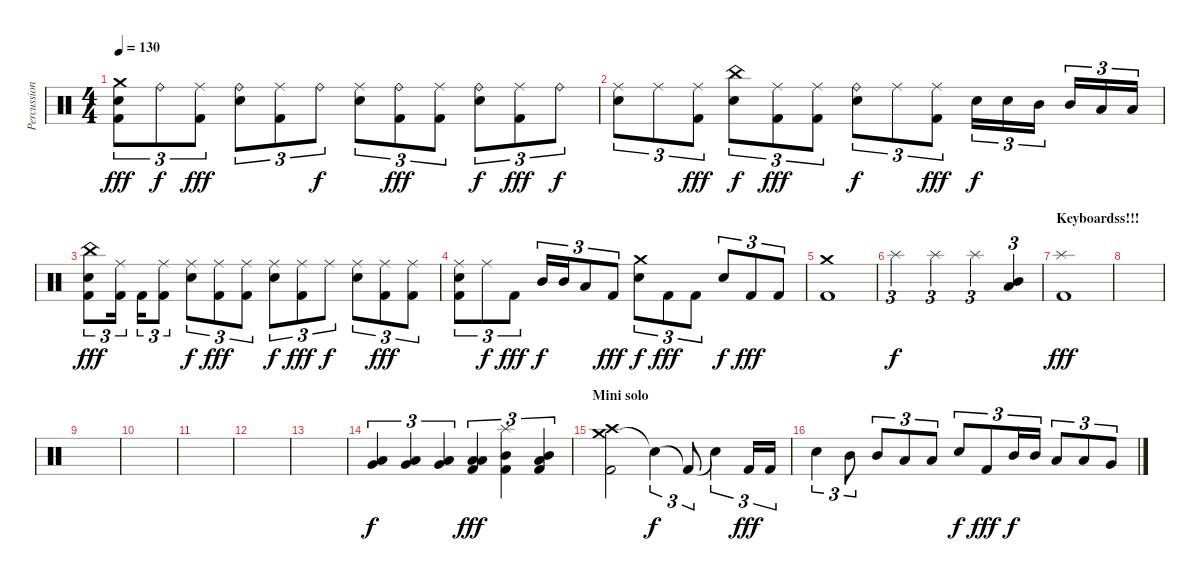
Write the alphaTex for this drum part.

\track ("Percussion" "Percussion") {instrument percussion}
\staff {score}
\articulation defaults
\ts (4 4)
\tempo 130
\clef neutral
\ks c
("Crash medium (hit)" "Electric Snare (hit)" "Kick (hit) 2").8{tu (3 2) dy fff} "Ride (bell)".8{tu (3 2) dy f} ("Ride (middle)" "Kick (hit) 2").8{tu (3 2) dy fff} ("Ride (bell)" "Electric Snare (hit)").8{tu (3 2)} ("Ride (middle)" "Kick (hit) 2").8{tu (3 2)} "Ride (bell)".8{tu (3 2) dy f} ("Ride (middle)" "Electric Snare (hit)").8{tu (3 2)} ("Ride (bell)" "Kick (hit) 2").8{tu (3 2) dy fff} ("Ride (middle)" "Kick (hit) 2").8{tu (3 2)} ("Ride (bell)" "Electric Snare (hit)").8{tu (3 2) dy f} ("Ride (middle)" "Kick (hit) 2").8{tu (3 2) dy fff} "Ride (bell)".8{tu (3 2) dy f} |
("Ride (middle)" "Electric Snare (hit)").8{tu (3 2)} "Ride (middle)".8{tu (3 2)} ("Ride (middle)" "Kick (hit) 2").8{tu (3 2) dy fff} ("China (hit)" "Electric Snare (hit)").8{tu (3 2) dy f} ("Ride (middle)" "Kick (hit) 2").8{tu (3 2) dy fff} ("Ride (middle)" "Kick (hit) 2").8{tu (3 2)} ("Ride (bell)" "Electric Snare (hit)").8{tu (3 2) dy f} "Ride (middle)".8{tu (3 2)} ("Ride (middle)" "Kick (hit) 2").8{tu (3 2) dy fff} "Electric Snare (hit)".16{tu (3 2) dy f} "Electric Snare (hit)".16{tu (3 2)} "Mid Tom (hit)".16{tu (3 2)} "Mid Tom (hit)".16{tu (3 2)} "Low Tom (hit)".16{tu (3 2)} "Low Tom (hit)".16{tu (3 2)} |
("China (hit)" "Electric Snare (hit)" "Kick (hit) 2").8{tu (3 2) dy fff} ("Ride (middle)" "Kick (hit) 2").16{tu (3 2)} "Kick (hit) 2".16{tu (3 2)} ("Ride (middle)" "Kick (hit) 2").8{tu (3 2)} ("Ride (middle)" "Electric Snare (hit)").8{tu (3 2) dy f} ("Ride (middle)" "Kick (hit) 2").8{tu (3 2) dy fff} ("Ride (middle)" "Kick (hit) 2").8{tu (3 2)} ("Ride (middle)" "Electric Snare (hit)").8{tu (3 2) dy f} ("Ride (middle)" "Kick (hit) 2").8{tu (3 2) dy fff} "Ride (middle)".8{tu (3 2) dy f} ("Ride (middle)" "Electric Snare (hit)").8{tu (3 2)} ("Ride (middle)" "Kick (hit) 2").8{tu (3 2) dy fff} ("Ride (middle)" "Kick (hit) 2").8{tu (3 2)} |
("Ride (middle)" "Electric Snare (hit)" "Kick (hit) 2").8{tu (3 2)} "Ride (middle)".8{tu (3 2) dy f} "Kick (hit) 2".8{tu (3 2) dy fff} "Mid Tom (hit)".16{tu (3 2) dy f} "Mid Tom (hit)".16{tu (3 2)} "Low Tom (hit)".8{tu (3 2)} "Kick (hit) 2".8{tu (3 2) dy fff} ("Crash medium (hit)" "Electric Snare (hit)").8{tu (3 2) dy f} "Kick (hit) 2".8{tu (3 2) dy fff} "Kick (hit) 2".8{tu (3 2)} "Electric Snare (hit)".8{tu (3 2) dy f} "Kick (hit) 2".8{tu (3 2) dy fff} "Kick (hit) 2".8{tu (3 2)} |
("Crash medium (hit)" "Kick (hit) 2").1 |
"Splash (hit)".2{tu (3 2) dy f} "Splash (hit)".2{tu (3 2)} "Splash (hit)".4{tu (3 2)} ("Mid Tom (hit)" "Low Tom (hit)").4{tu (3 2)} |
\section ("" "Keyboardss!!!")
("Splash (hit)" "Kick (hit) 2").1{dy fff} |
|
|
|
|
|
|
("Very Low Tom (hit)" "Low Floor Tom (hit)").4{tu (3 2) dy f} ("Very Low Tom (hit)" "Low Floor Tom (hit)").4{tu (3 2)} ("Very Low Tom (hit)" "Low Floor Tom (hit)").4{tu (3 2)} ("Low Tom (hit)" "Low Floor Tom (hit)" "Kick (hit) 2").4{tu (3 2) dy fff} ("Splash (hit)" "Mid Tom (hit)" "Kick (hit) 2").4{tu (3 2)} ("Mid Tom (hit)" "Low Tom (hit)" "Kick (hit) 2").4{tu (3 2)} |
\section ("" "Mini solo ")
("Crash medium (hit)" "Crash high (hit)" "Kick (hit) 2").2 "Snare (hit)"{t}.4{tu (3 2) dy f} "Kick (hit) 2"{t}.8{tu (3 2)} "Snare (hit)"{t}.4{tu (3 2)} "Kick (hit) 2".16{tu (3 2) dy fff} "Kick (hit) 2".16{tu (3 2)} |
"Electric Snare (hit)".4{tu (3 2)} "Mid Tom (hit)".8{tu (3 2)} "Mid Tom (hit)".8{tu (3 2)} "Low Tom (hit)".8{tu (3 2)} "Low Tom (hit)".8{tu (3 2)} "Electric Snare (hit)".8{tu (3 2) dy f} "Kick (hit) 2".8{tu (3 2) dy fff} "Mid Tom (hit)".16{tu (3 2) dy f} "Mid Tom (hit)".16{tu (3 2)} "Low Tom (hit)".8{tu (3 2)} "Low Tom (hit)".8{tu (3 2)} "Very Low Tom (hit)".8{tu (3 2)}
